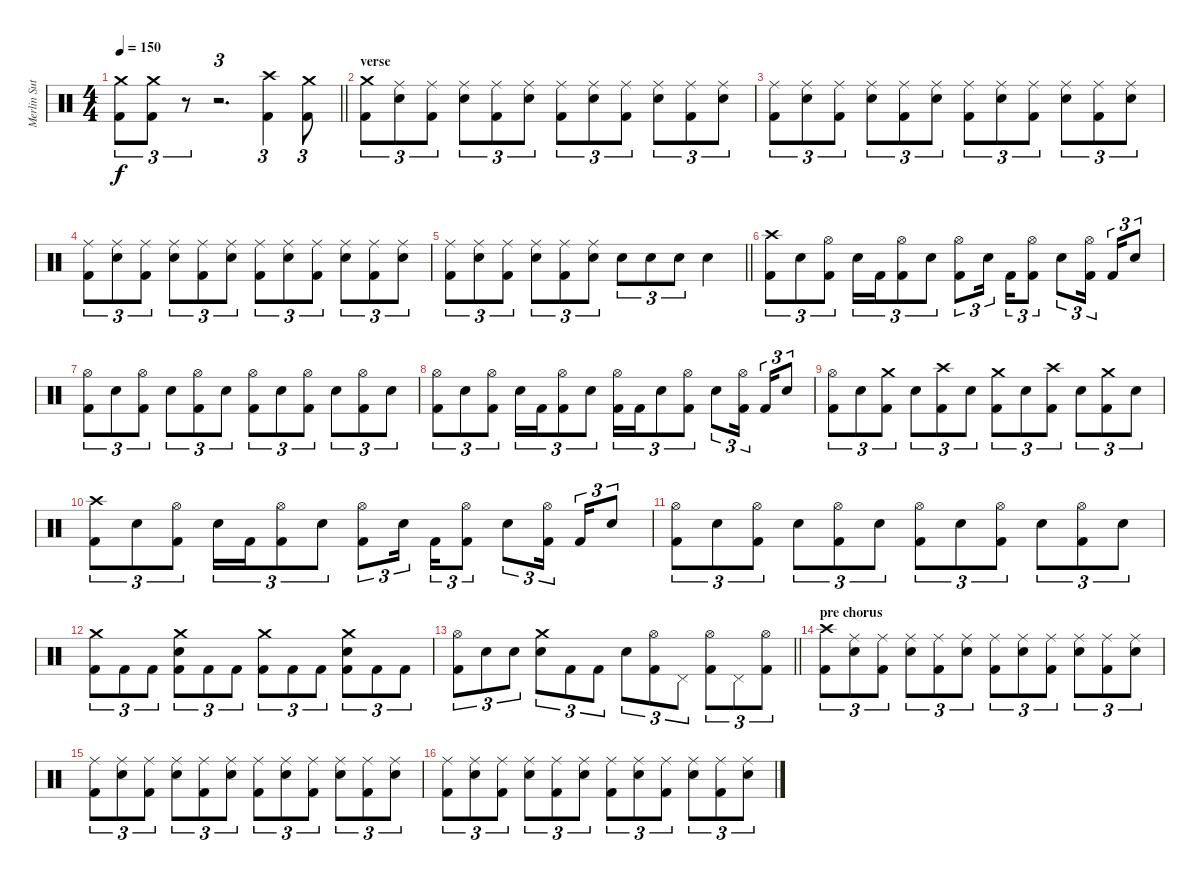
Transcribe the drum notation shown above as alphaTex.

\track ("Merlin Sutter" "Merlin Sut") {instrument percussion}
\staff {score}
\articulation defaults
\ts (4 4)
\tempo 150
\clef neutral
\barLineRight lightlight
\ks c
("Crash medium (hit)" "Kick (hit) 2").8{tu (3 2) dy f} ("Crash medium (hit)" "Kick (hit) 2").8{tu (3 2)} r.8{tu (3 2) volume 0} r.2{d tu (3 2)} ("Crash high (hit)" "Kick (hit) 2").4{tu (3 2) volume 16} ("Crash medium (hit)" "Kick (hit) 2").8{tu (3 2)} |
\section ("" "verse")
("Crash medium (hit)" "Kick (hit) 2").8{tu (3 2)} ("Ride (middle)" "Snare (hit) 2").8{tu (3 2)} ("Ride (middle)" "Kick (hit) 2").8{tu (3 2)} ("Ride (middle)" "Snare (hit) 2").8{tu (3 2)} ("Ride (middle)" "Kick (hit) 2").8{tu (3 2)} ("Ride (middle)" "Snare (hit) 2").8{tu (3 2)} ("Ride (middle)" "Kick (hit) 2").8{tu (3 2)} ("Ride (middle)" "Snare (hit) 2").8{tu (3 2)} ("Ride (middle)" "Kick (hit) 2").8{tu (3 2)} ("Ride (middle)" "Snare (hit) 2").8{tu (3 2)} ("Ride (middle)" "Kick (hit) 2").8{tu (3 2)} ("Ride (middle)" "Snare (hit) 2").8{tu (3 2)} |
("Ride (middle)" "Kick (hit) 2").8{tu (3 2)} ("Ride (middle)" "Snare (hit) 2").8{tu (3 2)} ("Ride (middle)" "Kick (hit) 2").8{tu (3 2)} ("Ride (middle)" "Snare (hit) 2").8{tu (3 2)} ("Ride (middle)" "Kick (hit) 2").8{tu (3 2)} ("Ride (middle)" "Snare (hit) 2").8{tu (3 2)} ("Ride (middle)" "Kick (hit) 2").8{tu (3 2)} ("Ride (middle)" "Snare (hit) 2").8{tu (3 2)} ("Ride (middle)" "Kick (hit) 2").8{tu (3 2)} ("Ride (middle)" "Snare (hit) 2").8{tu (3 2)} ("Ride (middle)" "Kick (hit) 2").8{tu (3 2)} ("Ride (middle)" "Snare (hit) 2").8{tu (3 2)} |
("Ride (middle)" "Kick (hit) 2").8{tu (3 2)} ("Ride (middle)" "Snare (hit) 2").8{tu (3 2)} ("Ride (middle)" "Kick (hit) 2").8{tu (3 2)} ("Ride (middle)" "Snare (hit) 2").8{tu (3 2)} ("Ride (middle)" "Kick (hit) 2").8{tu (3 2)} ("Ride (middle)" "Snare (hit) 2").8{tu (3 2)} ("Ride (middle)" "Kick (hit) 2").8{tu (3 2)} ("Ride (middle)" "Snare (hit) 2").8{tu (3 2)} ("Ride (middle)" "Kick (hit) 2").8{tu (3 2)} ("Ride (middle)" "Snare (hit) 2").8{tu (3 2)} ("Ride (middle)" "Kick (hit) 2").8{tu (3 2)} ("Ride (middle)" "Snare (hit) 2").8{tu (3 2)} |
\barLineRight lightlight
("Ride (middle)" "Kick (hit) 2").8{tu (3 2)} ("Ride (middle)" "Snare (hit) 2").8{tu (3 2)} ("Ride (middle)" "Kick (hit) 2").8{tu (3 2)} ("Ride (middle)" "Snare (hit) 2").8{tu (3 2)} ("Ride (middle)" "Kick (hit) 2").8{tu (3 2)} ("Ride (middle)" "Snare (hit) 2").8{tu (3 2)} "Snare (hit) 2".8{tu (3 2)} "Snare (hit) 2".8{tu (3 2)} "Snare (hit) 2".8{tu (3 2)} "Snare (hit) 2".4 |
\section ("" "")
("Crash high (hit)" "Kick (hit) 2").8{tu (3 2)} "Snare (hit) 2".8{tu (3 2)} ("Hi-Hat (open)" "Kick (hit) 2").8{tu (3 2)} "Snare (hit) 2".16{tu (3 2)} "Kick (hit) 2".16{tu (3 2)} ("Hi-Hat (open)" "Kick (hit) 2").8{tu (3 2)} "Snare (hit) 2".8{tu (3 2)} ("Hi-Hat (open)" "Kick (hit) 2").8{tu (3 2)} "Snare (hit) 2".16{tu (3 2) beam splitsecondary} "Kick (hit) 2".16{tu (3 2)} ("Hi-Hat (open)" "Kick (hit) 2").8{tu (3 2)} "Snare (hit) 2".8{tu (3 2)} ("Hi-Hat (open)" "Kick (hit) 2").16{tu (3 2) beam splitsecondary} "Kick (hit) 2".16{tu (3 2)} "Snare (hit) 2".8{tu (3 2)} |
("Hi-Hat (open)" "Kick (hit) 2").8{tu (3 2)} "Snare (hit) 2".8{tu (3 2)} ("Hi-Hat (open)" "Kick (hit) 2").8{tu (3 2)} "Snare (hit) 2".8{tu (3 2)} ("Hi-Hat (open)" "Kick (hit) 2").8{tu (3 2)} "Snare (hit) 2".8{tu (3 2)} ("Hi-Hat (open)" "Kick (hit) 2").8{tu (3 2)} "Snare (hit) 2".8{tu (3 2)} ("Hi-Hat (open)" "Kick (hit) 2").8{tu (3 2)} "Snare (hit) 2".8{tu (3 2)} ("Hi-Hat (open)" "Kick (hit) 2").8{tu (3 2)} "Snare (hit) 2".8{tu (3 2)} |
("Hi-Hat (open)" "Kick (hit) 2").8{tu (3 2)} "Snare (hit) 2".8{tu (3 2)} ("Hi-Hat (open)" "Kick (hit) 2").8{tu (3 2)} "Snare (hit) 2".16{tu (3 2)} "Kick (hit) 2".16{tu (3 2)} ("Hi-Hat (open)" "Kick (hit) 2").8{tu (3 2)} "Snare (hit) 2".8{tu (3 2)} ("Hi-Hat (open)" "Kick (hit) 2").16{tu (3 2)} "Kick (hit) 2".16{tu (3 2)} "Snare (hit) 2".8{tu (3 2)} ("Hi-Hat (open)" "Kick (hit) 2").8{tu (3 2)} "Snare (hit) 2".8{tu (3 2)} ("Hi-Hat (open)" "Kick (hit) 2").16{tu (3 2) beam splitsecondary} "Kick (hit) 2".16{tu (3 2)} "Snare (hit) 2".8{tu (3 2)} |
("Hi-Hat (open)" "Kick (hit) 2").8{tu (3 2)} "Snare (hit) 2".8{tu (3 2)} ("Crash medium (hit)" "Kick (hit) 2").8{tu (3 2)} "Snare (hit) 2".8{tu (3 2)} ("Crash high (hit)" "Kick (hit) 2").8{tu (3 2)} "Snare (hit) 2".8{tu (3 2)} ("Crash medium (hit)" "Kick (hit) 2").8{tu (3 2)} "Snare (hit) 2".8{tu (3 2)} ("Crash high (hit)" "Kick (hit) 2").8{tu (3 2)} "Snare (hit) 2".8{tu (3 2)} ("Crash medium (hit)" "Kick (hit) 2").8{tu (3 2)} "Snare (hit) 2".8{tu (3 2)} |
("Crash high (hit)" "Kick (hit) 2").8{tu (3 2)} "Snare (hit) 2".8{tu (3 2)} ("Hi-Hat (open)" "Kick (hit) 2").8{tu (3 2)} "Snare (hit) 2".16{tu (3 2)} "Kick (hit) 2".16{tu (3 2)} ("Hi-Hat (open)" "Kick (hit) 2").8{tu (3 2)} "Snare (hit) 2".8{tu (3 2)} ("Hi-Hat (open)" "Kick (hit) 2").8{tu (3 2)} "Snare (hit) 2".16{tu (3 2) beam splitsecondary} "Kick (hit) 2".16{tu (3 2)} ("Hi-Hat (open)" "Kick (hit) 2").8{tu (3 2)} "Snare (hit) 2".8{tu (3 2)} ("Hi-Hat (open)" "Kick (hit) 2").16{tu (3 2) beam splitsecondary} "Kick (hit) 2".16{tu (3 2)} "Snare (hit) 2".8{tu (3 2)} |
("Hi-Hat (open)" "Kick (hit) 2").8{tu (3 2)} "Snare (hit) 2".8{tu (3 2)} ("Hi-Hat (open)" "Kick (hit) 2").8{tu (3 2)} "Snare (hit) 2".8{tu (3 2)} ("Hi-Hat (open)" "Kick (hit) 2").8{tu (3 2)} "Snare (hit) 2".8{tu (3 2)} ("Hi-Hat (open)" "Kick (hit) 2").8{tu (3 2)} "Snare (hit) 2".8{tu (3 2)} ("Hi-Hat (open)" "Kick (hit) 2").8{tu (3 2)} "Snare (hit) 2".8{tu (3 2)} ("Hi-Hat (open)" "Kick (hit) 2").8{tu (3 2)} "Snare (hit) 2".8{tu (3 2)} |
("Crash medium (hit)" "Kick (hit) 2").8{tu (3 2)} "Kick (hit) 2".8{tu (3 2)} "Kick (hit) 2".8{tu (3 2)} ("Crash medium (hit)" "Snare (hit) 2" "Kick (hit) 2").8{tu (3 2)} "Kick (hit) 2".8{tu (3 2)} "Kick (hit) 2".8{tu (3 2)} ("Crash medium (hit)" "Kick (hit) 2").8{tu (3 2)} "Kick (hit) 2".8{tu (3 2)} "Kick (hit) 2".8{tu (3 2)} ("Crash medium (hit)" "Snare (hit) 2" "Kick (hit) 2").8{tu (3 2)} "Kick (hit) 2".8{tu (3 2)} "Kick (hit) 2".8{tu (3 2)} |
\barLineRight lightlight
("Hi-Hat (open)" "Kick (hit) 2").8{tu (3 2)} "Snare (hit) 2".8{tu (3 2)} "Snare (hit) 2".8{tu (3 2)} ("Crash medium (hit)" "Snare (hit) 2").8{tu (3 2)} "Kick (hit) 2".8{tu (3 2)} "Kick (hit) 2".8{tu (3 2)} "Snare (hit) 2".8{tu (3 2)} ("Hi-Hat (open)" "Kick (hit) 2").8{tu (3 2)} "Pedal Hi-Hat (hit)".8{tu (3 2)} ("Hi-Hat (open)" "Kick (hit) 2").8{tu (3 2)} "Pedal Hi-Hat (hit)".8{tu (3 2)} ("Hi-Hat (open)" "Kick (hit) 2").8{tu (3 2)} |
\section ("" "pre chorus")
("Crash high (hit)" "Kick (hit) 2").8{tu (3 2)} ("Ride (middle)" "Snare (hit) 2").8{tu (3 2)} ("Ride (middle)" "Kick (hit) 2").8{tu (3 2)} ("Ride (middle)" "Snare (hit) 2").8{tu (3 2)} ("Ride (middle)" "Kick (hit) 2").8{tu (3 2)} ("Ride (middle)" "Snare (hit) 2").8{tu (3 2)} ("Ride (middle)" "Kick (hit) 2").8{tu (3 2)} ("Ride (middle)" "Snare (hit) 2").8{tu (3 2)} ("Ride (middle)" "Kick (hit) 2").8{tu (3 2)} ("Ride (middle)" "Snare (hit) 2").8{tu (3 2)} ("Ride (middle)" "Kick (hit) 2").8{tu (3 2)} ("Ride (middle)" "Snare (hit) 2").8{tu (3 2)} |
("Ride (middle)" "Kick (hit) 2").8{tu (3 2)} ("Ride (middle)" "Snare (hit) 2").8{tu (3 2)} ("Ride (middle)" "Kick (hit) 2").8{tu (3 2)} ("Ride (middle)" "Snare (hit) 2").8{tu (3 2)} ("Ride (middle)" "Kick (hit) 2").8{tu (3 2)} ("Ride (middle)" "Snare (hit) 2").8{tu (3 2)} ("Ride (middle)" "Kick (hit) 2").8{tu (3 2)} ("Ride (middle)" "Snare (hit) 2").8{tu (3 2)} ("Ride (middle)" "Kick (hit) 2").8{tu (3 2)} ("Ride (middle)" "Snare (hit) 2").8{tu (3 2)} ("Ride (middle)" "Kick (hit) 2").8{tu (3 2)} ("Ride (middle)" "Snare (hit) 2").8{tu (3 2)} |
("Ride (middle)" "Kick (hit) 2").8{tu (3 2)} ("Ride (middle)" "Snare (hit) 2").8{tu (3 2)} ("Ride (middle)" "Kick (hit) 2").8{tu (3 2)} ("Ride (middle)" "Snare (hit) 2").8{tu (3 2)} ("Ride (middle)" "Kick (hit) 2").8{tu (3 2)} ("Ride (middle)" "Snare (hit) 2").8{tu (3 2)} ("Ride (middle)" "Kick (hit) 2").8{tu (3 2)} ("Ride (middle)" "Snare (hit) 2").8{tu (3 2)} ("Ride (middle)" "Kick (hit) 2").8{tu (3 2)} ("Ride (middle)" "Snare (hit) 2").8{tu (3 2)} ("Ride (middle)" "Kick (hit) 2").8{tu (3 2)} ("Ride (middle)" "Snare (hit) 2").8{tu (3 2)}
